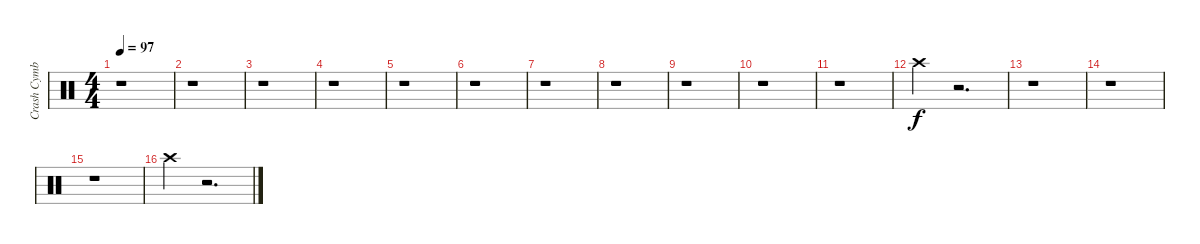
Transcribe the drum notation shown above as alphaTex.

\track ("Crash Cymbal" "Crash Cymb") {instrument percussion}
\staff {score}
\articulation defaults
\ts (4 4)
\tempo 97
\clef neutral
\ks c
r.1{dy f} |
r.1 |
r.1 |
r.1 |
r.1 |
r.1 |
r.1 |
r.1 |
r.1 |
r.1 |
r.1 |
"Crash high (hit)".4 r.2{d} |
r.1 |
r.1 |
r.1 |
"Crash high (hit)".4 r.2{d}
